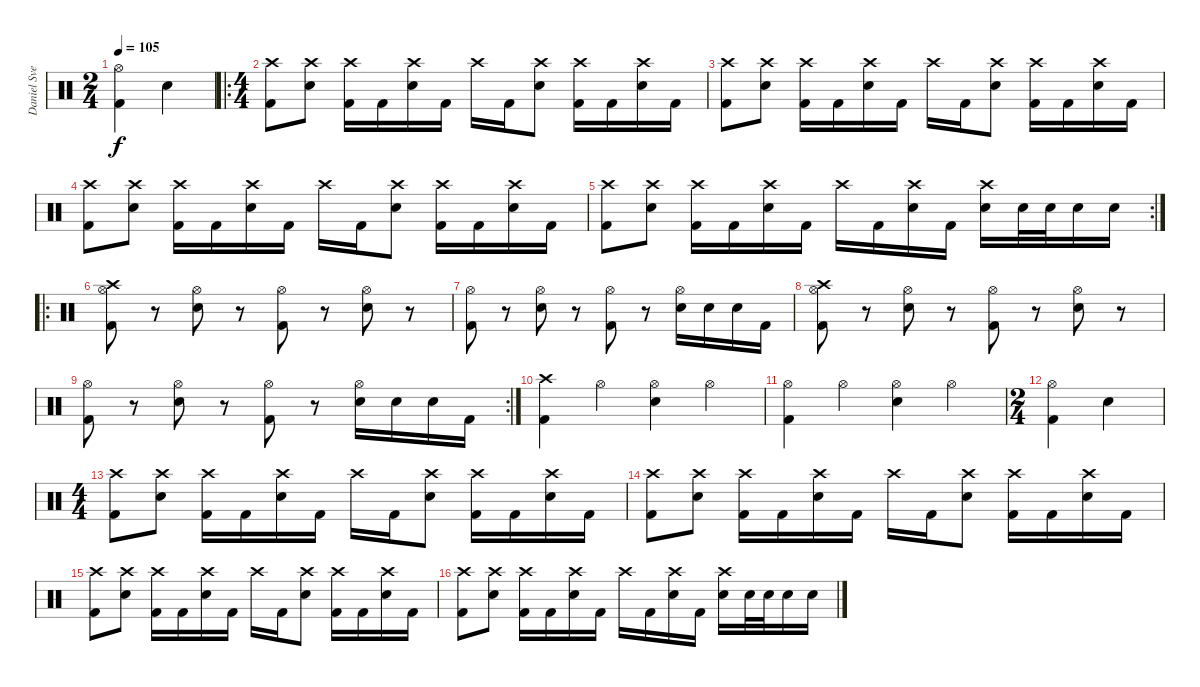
\track ("Daniel Svensson" "Daniel Sve") {instrument percussion}
\staff {score}
\articulation defaults
\ts (2 4)
\tempo 105
\clef neutral
\ks c
("Hi-Hat (open)" "Kick (hit) 2").4{dy f} "Electric Snare (hit)".4 |
\ro
\ts (4 4)
("Crash high (hit)" "Kick (hit) 2").8 ("Crash high (hit)" "Electric Snare (hit)").8 ("Crash high (hit)" "Kick (hit) 2").16 "Kick (hit) 2".16 ("Crash high (hit)" "Electric Snare (hit)").16 "Kick (hit) 2".16 "Crash high (hit)".16 "Kick (hit) 2".16 ("Crash high (hit)" "Electric Snare (hit)").8 ("Crash high (hit)" "Kick (hit) 2").16 "Kick (hit) 2".16 ("Crash high (hit)" "Electric Snare (hit)").16 "Kick (hit) 2".16 |
("Crash high (hit)" "Kick (hit) 2").8 ("Crash high (hit)" "Electric Snare (hit)").8 ("Crash high (hit)" "Kick (hit) 2").16 "Kick (hit) 2".16 ("Crash high (hit)" "Electric Snare (hit)").16 "Kick (hit) 2".16 "Crash high (hit)".16 "Kick (hit) 2".16 ("Crash high (hit)" "Electric Snare (hit)").8 ("Crash high (hit)" "Kick (hit) 2").16 "Kick (hit) 2".16 ("Crash high (hit)" "Electric Snare (hit)").16 "Kick (hit) 2".16 |
("Crash high (hit)" "Kick (hit) 2").8 ("Crash high (hit)" "Electric Snare (hit)").8 ("Crash high (hit)" "Kick (hit) 2").16 "Kick (hit) 2".16 ("Crash high (hit)" "Electric Snare (hit)").16 "Kick (hit) 2".16 "Crash high (hit)".16 "Kick (hit) 2".16 ("Crash high (hit)" "Electric Snare (hit)").8 ("Crash high (hit)" "Kick (hit) 2").16 "Kick (hit) 2".16 ("Crash high (hit)" "Electric Snare (hit)").16 "Kick (hit) 2".16 |
\rc 2
("Crash high (hit)" "Kick (hit) 2").8 ("Crash high (hit)" "Electric Snare (hit)").8 ("Crash high (hit)" "Kick (hit) 2").16 "Kick (hit) 2".16 ("Crash high (hit)" "Electric Snare (hit)").16 "Kick (hit) 2".16 "Crash high (hit)".16 "Kick (hit) 2".16 ("Crash high (hit)" "Electric Snare (hit)").16 "Kick (hit) 2".16 ("Crash high (hit)" "Electric Snare (hit)").16 "Electric Snare (hit)".32 "Electric Snare (hit)".32 "Electric Snare (hit)".16 "Electric Snare (hit)".16 |
\ro
("Crash high (hit)" "Hi-Hat (open)" "Kick (hit) 2").8 r.8 ("Hi-Hat (open)" "Snare (hit) 2").8 r.8 ("Hi-Hat (open)" "Kick (hit) 2").8 r.8 ("Hi-Hat (open)" "Snare (hit) 2").8 r.8 |
("Hi-Hat (open)" "Kick (hit) 2").8 r.8 ("Hi-Hat (open)" "Snare (hit) 2").8 r.8 ("Hi-Hat (open)" "Kick (hit) 2").8 r.8 ("Hi-Hat (open)" "Snare (hit) 2").16 "Snare (hit) 2".16 "Snare (hit) 2".16 "Kick (hit) 2".16 |
("Crash high (hit)" "Hi-Hat (open)" "Kick (hit) 2").8 r.8 ("Hi-Hat (open)" "Snare (hit) 2").8 r.8 ("Hi-Hat (open)" "Kick (hit) 2").8 r.8 ("Hi-Hat (open)" "Snare (hit) 2").8 r.8 |
\rc 2
("Hi-Hat (open)" "Kick (hit) 2").8 r.8 ("Hi-Hat (open)" "Snare (hit) 2").8 r.8 ("Hi-Hat (open)" "Kick (hit) 2").8 r.8 ("Hi-Hat (open)" "Snare (hit) 2").16 "Snare (hit) 2".16 "Snare (hit) 2".16 "Kick (hit) 2".16 |
("Kick (hit) 2" "Crash high (hit)").4 "Hi-Hat (open)".4 ("Electric Snare (hit)" "Hi-Hat (open)").4 "Hi-Hat (open)".4 |
("Hi-Hat (open)" "Kick (hit) 2").4 "Hi-Hat (open)".4 ("Electric Snare (hit)" "Hi-Hat (open)").4 "Hi-Hat (open)".4 |
\ts (2 4)
("Hi-Hat (open)" "Kick (hit) 2").4 "Electric Snare (hit)".4 |
\ts (4 4)
("Crash high (hit)" "Kick (hit) 2").8 ("Crash high (hit)" "Electric Snare (hit)").8 ("Crash high (hit)" "Kick (hit) 2").16 "Kick (hit) 2".16 ("Crash high (hit)" "Electric Snare (hit)").16 "Kick (hit) 2".16 "Crash high (hit)".16 "Kick (hit) 2".16 ("Crash high (hit)" "Electric Snare (hit)").8 ("Crash high (hit)" "Kick (hit) 2").16 "Kick (hit) 2".16 ("Crash high (hit)" "Electric Snare (hit)").16 "Kick (hit) 2".16 |
("Crash high (hit)" "Kick (hit) 2").8 ("Crash high (hit)" "Electric Snare (hit)").8 ("Crash high (hit)" "Kick (hit) 2").16 "Kick (hit) 2".16 ("Crash high (hit)" "Electric Snare (hit)").16 "Kick (hit) 2".16 "Crash high (hit)".16 "Kick (hit) 2".16 ("Crash high (hit)" "Electric Snare (hit)").8 ("Crash high (hit)" "Kick (hit) 2").16 "Kick (hit) 2".16 ("Crash high (hit)" "Electric Snare (hit)").16 "Kick (hit) 2".16 |
("Crash high (hit)" "Kick (hit) 2").8 ("Crash high (hit)" "Electric Snare (hit)").8 ("Crash high (hit)" "Kick (hit) 2").16 "Kick (hit) 2".16 ("Crash high (hit)" "Electric Snare (hit)").16 "Kick (hit) 2".16 "Crash high (hit)".16 "Kick (hit) 2".16 ("Crash high (hit)" "Electric Snare (hit)").8 ("Crash high (hit)" "Kick (hit) 2").16 "Kick (hit) 2".16 ("Crash high (hit)" "Electric Snare (hit)").16 "Kick (hit) 2".16 |
("Crash high (hit)" "Kick (hit) 2").8 ("Crash high (hit)" "Electric Snare (hit)").8 ("Crash high (hit)" "Kick (hit) 2").16 "Kick (hit) 2".16 ("Crash high (hit)" "Electric Snare (hit)").16 "Kick (hit) 2".16 "Crash high (hit)".16 "Kick (hit) 2".16 ("Crash high (hit)" "Electric Snare (hit)").16 "Kick (hit) 2".16 ("Crash high (hit)" "Electric Snare (hit)").16 "Electric Snare (hit)".32 "Electric Snare (hit)".32 "Electric Snare (hit)".16 "Electric Snare (hit)".16
